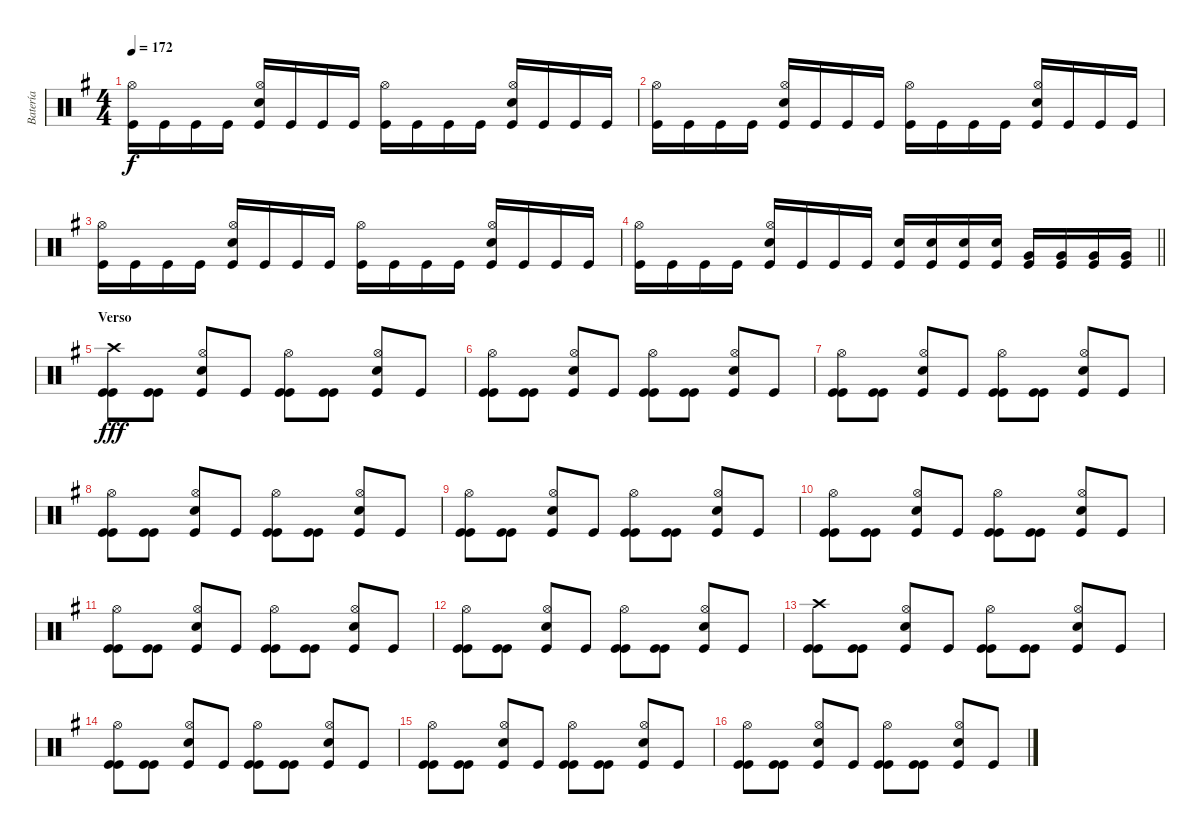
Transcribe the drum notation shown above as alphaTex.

\track ("Batería" "Batería") {instrument percussion}
\staff {score}
\articulation defaults
\ts (4 4)
\tempo 172
\clef neutral
\ks eminor
("Kick (hit)" "Hi-Hat (open)").16{dy f} "Kick (hit)".16 "Kick (hit)".16 "Kick (hit)".16 ("Kick (hit)" "Hi-Hat (open)" "Electric Snare (hit)").16 "Kick (hit)".16 "Kick (hit)".16 "Kick (hit)".16 ("Kick (hit)" "Hi-Hat (open)").16 "Kick (hit)".16 "Kick (hit)".16 "Kick (hit)".16 ("Kick (hit)" "Hi-Hat (open)" "Electric Snare (hit)").16 "Kick (hit)".16 "Kick (hit)".16 "Kick (hit)".16 |
("Kick (hit)" "Hi-Hat (open)").16 "Kick (hit)".16 "Kick (hit)".16 "Kick (hit)".16 ("Kick (hit)" "Hi-Hat (open)" "Electric Snare (hit)").16 "Kick (hit)".16 "Kick (hit)".16 "Kick (hit)".16 ("Kick (hit)" "Hi-Hat (open)").16 "Kick (hit)".16 "Kick (hit)".16 "Kick (hit)".16 ("Kick (hit)" "Hi-Hat (open)" "Electric Snare (hit)").16 "Kick (hit)".16 "Kick (hit)".16 "Kick (hit)".16 |
("Kick (hit)" "Hi-Hat (open)").16 "Kick (hit)".16 "Kick (hit)".16 "Kick (hit)".16 ("Kick (hit)" "Hi-Hat (open)" "Electric Snare (hit)").16 "Kick (hit)".16 "Kick (hit)".16 "Kick (hit)".16 ("Kick (hit)" "Hi-Hat (open)").16 "Kick (hit)".16 "Kick (hit)".16 "Kick (hit)".16 ("Kick (hit)" "Hi-Hat (open)" "Electric Snare (hit)").16 "Kick (hit)".16 "Kick (hit)".16 "Kick (hit)".16 |
\barLineRight lightlight
("Kick (hit)" "Hi-Hat (open)").16 "Kick (hit)".16 "Kick (hit)".16 "Kick (hit)".16 ("Kick (hit)" "Hi-Hat (open)" "Electric Snare (hit)").16 "Kick (hit)".16 "Kick (hit)".16 "Kick (hit)".16 ("Kick (hit)" "Electric Snare (hit)").16 ("Kick (hit)" "Electric Snare (hit)").16 ("Kick (hit)" "Electric Snare (hit)").16 ("Kick (hit)" "Electric Snare (hit)").16 ("Kick (hit)" "Very Low Tom (hit)").16 ("Kick (hit)" "Very Low Tom (hit)").16 ("Kick (hit)" "Very Low Tom (hit)").16 ("Kick (hit)" "Very Low Tom (hit)").16 |
\section ("" "Verso")
("Kick (hit)" "Kick (hit)" "Crash high (hit)").8{dy fff} ("Kick (hit)" "Kick (hit)").8 ("Kick (hit)" "Electric Snare (hit)" "Hi-Hat (open)").8 "Kick (hit)".8 ("Kick (hit)" "Kick (hit)" "Hi-Hat (open)").8 ("Kick (hit)" "Kick (hit)").8 ("Kick (hit)" "Electric Snare (hit)" "Hi-Hat (open)").8 "Kick (hit)".8 |
("Kick (hit)" "Kick (hit)" "Hi-Hat (open)").8 ("Kick (hit)" "Kick (hit)").8 ("Kick (hit)" "Electric Snare (hit)" "Hi-Hat (open)").8 "Kick (hit)".8 ("Kick (hit)" "Kick (hit)" "Hi-Hat (open)").8 ("Kick (hit)" "Kick (hit)").8 ("Kick (hit)" "Electric Snare (hit)" "Hi-Hat (open)").8 "Kick (hit)".8 |
("Kick (hit)" "Kick (hit)" "Hi-Hat (open)").8 ("Kick (hit)" "Kick (hit)").8 ("Kick (hit)" "Electric Snare (hit)" "Hi-Hat (open)").8 "Kick (hit)".8 ("Kick (hit)" "Kick (hit)" "Hi-Hat (open)").8 ("Kick (hit)" "Kick (hit)").8 ("Kick (hit)" "Electric Snare (hit)" "Hi-Hat (open)").8 "Kick (hit)".8 |
("Kick (hit)" "Kick (hit)" "Hi-Hat (open)").8 ("Kick (hit)" "Kick (hit)").8 ("Kick (hit)" "Electric Snare (hit)" "Hi-Hat (open)").8 "Kick (hit)".8 ("Kick (hit)" "Kick (hit)" "Hi-Hat (open)").8 ("Kick (hit)" "Kick (hit)").8 ("Kick (hit)" "Electric Snare (hit)" "Hi-Hat (open)").8 "Kick (hit)".8 |
("Kick (hit)" "Kick (hit)" "Hi-Hat (open)").8 ("Kick (hit)" "Kick (hit)").8 ("Kick (hit)" "Electric Snare (hit)" "Hi-Hat (open)").8 "Kick (hit)".8 ("Kick (hit)" "Kick (hit)" "Hi-Hat (open)").8 ("Kick (hit)" "Kick (hit)").8 ("Kick (hit)" "Electric Snare (hit)" "Hi-Hat (open)").8 "Kick (hit)".8 |
("Kick (hit)" "Kick (hit)" "Hi-Hat (open)").8 ("Kick (hit)" "Kick (hit)").8 ("Kick (hit)" "Electric Snare (hit)" "Hi-Hat (open)").8 "Kick (hit)".8 ("Kick (hit)" "Kick (hit)" "Hi-Hat (open)").8 ("Kick (hit)" "Kick (hit)").8 ("Kick (hit)" "Electric Snare (hit)" "Hi-Hat (open)").8 "Kick (hit)".8 |
("Kick (hit)" "Kick (hit)" "Hi-Hat (open)").8 ("Kick (hit)" "Kick (hit)").8 ("Kick (hit)" "Electric Snare (hit)" "Hi-Hat (open)").8 "Kick (hit)".8 ("Kick (hit)" "Kick (hit)" "Hi-Hat (open)").8 ("Kick (hit)" "Kick (hit)").8 ("Kick (hit)" "Electric Snare (hit)" "Hi-Hat (open)").8 "Kick (hit)".8 |
("Kick (hit)" "Kick (hit)" "Hi-Hat (open)").8 ("Kick (hit)" "Kick (hit)").8 ("Kick (hit)" "Electric Snare (hit)" "Hi-Hat (open)").8 "Kick (hit)".8 ("Kick (hit)" "Kick (hit)" "Hi-Hat (open)").8 ("Kick (hit)" "Kick (hit)").8 ("Kick (hit)" "Electric Snare (hit)" "Hi-Hat (open)").8 "Kick (hit)".8 |
("Kick (hit)" "Kick (hit)" "Crash high (hit)").8 ("Kick (hit)" "Kick (hit)").8 ("Kick (hit)" "Electric Snare (hit)" "Hi-Hat (open)").8 "Kick (hit)".8 ("Kick (hit)" "Kick (hit)" "Hi-Hat (open)").8 ("Kick (hit)" "Kick (hit)").8 ("Kick (hit)" "Electric Snare (hit)" "Hi-Hat (open)").8 "Kick (hit)".8 |
("Kick (hit)" "Kick (hit)" "Hi-Hat (open)").8 ("Kick (hit)" "Kick (hit)").8 ("Kick (hit)" "Electric Snare (hit)" "Hi-Hat (open)").8 "Kick (hit)".8 ("Kick (hit)" "Kick (hit)" "Hi-Hat (open)").8 ("Kick (hit)" "Kick (hit)").8 ("Kick (hit)" "Electric Snare (hit)" "Hi-Hat (open)").8 "Kick (hit)".8 |
("Kick (hit)" "Kick (hit)" "Hi-Hat (open)").8 ("Kick (hit)" "Kick (hit)").8 ("Kick (hit)" "Electric Snare (hit)" "Hi-Hat (open)").8 "Kick (hit)".8 ("Kick (hit)" "Kick (hit)" "Hi-Hat (open)").8 ("Kick (hit)" "Kick (hit)").8 ("Kick (hit)" "Electric Snare (hit)" "Hi-Hat (open)").8 "Kick (hit)".8 |
("Kick (hit)" "Kick (hit)" "Hi-Hat (open)").8 ("Kick (hit)" "Kick (hit)").8 ("Kick (hit)" "Electric Snare (hit)" "Hi-Hat (open)").8 "Kick (hit)".8 ("Kick (hit)" "Kick (hit)" "Hi-Hat (open)").8 ("Kick (hit)" "Kick (hit)").8 ("Kick (hit)" "Electric Snare (hit)" "Hi-Hat (open)").8 "Kick (hit)".8
